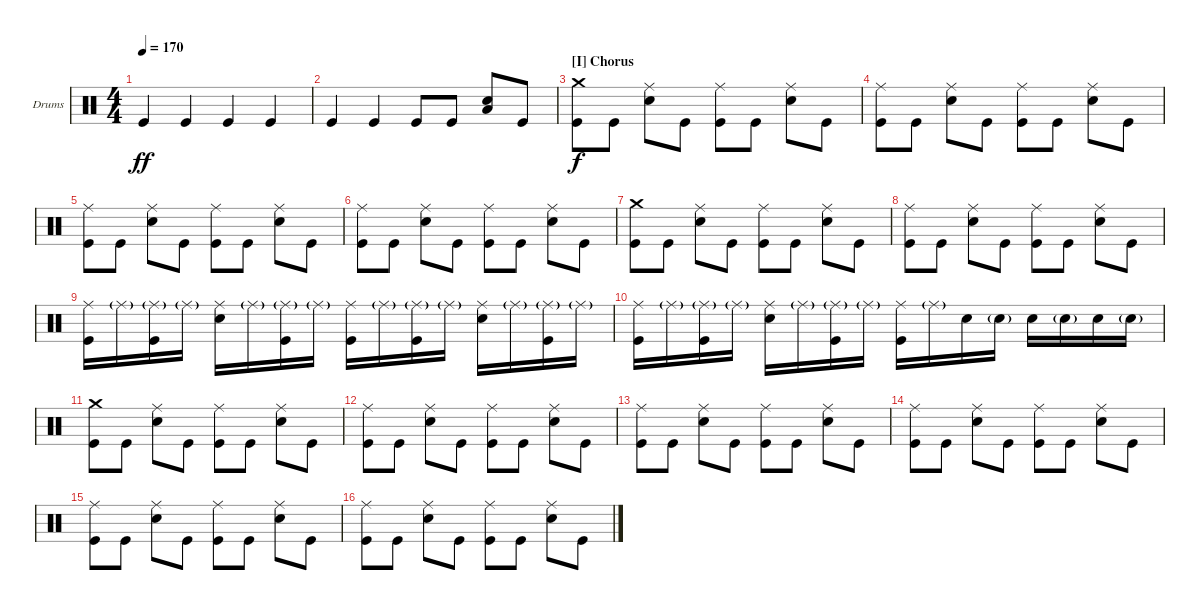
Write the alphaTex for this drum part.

\defaultSystemsLayout 4
\bracketExtendMode groupsimilarinstruments
\firstSystemTrackNameOrientation horizontal
\otherSystemsTrackNameOrientation horizontal
\track ("Benny Horowitz" "Drums") {instrument percussion}
\staff {score}
\articulation defaults
\ts (4 4)
\tempo 170
\clef neutral
\ks c "Kick (hit)".4{dy ff} "Kick (hit)".4 "Kick (hit)".4 "Kick (hit)".4
|
"Kick (hit)".4 "Kick (hit)".4 "Kick (hit)".8 "Kick (hit)".8 ("Snare (hit) 2" "Low Tom (hit)").8 "Kick (hit)".8 |
\section ("I" "Chorus")
("Crash medium (hit)" "Kick (hit)").8{dy f} "Kick (hit)".8 ("Snare (hit) 2" "Ride (middle)").8 "Kick (hit)".8 ("Kick (hit)" "Ride (middle)").8 "Kick (hit)".8 ("Snare (hit) 2" "Ride (middle)").8 "Kick (hit)".8 |
("Kick (hit)" "Ride (middle)").8 "Kick (hit)".8 ("Snare (hit) 2" "Ride (middle)").8 "Kick (hit)".8 ("Kick (hit)" "Ride (middle)").8 "Kick (hit)".8 ("Snare (hit) 2" "Ride (middle)").8 "Kick (hit)".8 |
("Kick (hit)" "Ride (middle)").8 "Kick (hit)".8 ("Snare (hit) 2" "Ride (middle)").8 "Kick (hit)".8 ("Kick (hit)" "Ride (middle)").8 "Kick (hit)".8 ("Snare (hit) 2" "Ride (middle)").8 "Kick (hit)".8 |
("Kick (hit)" "Ride (middle)").8 "Kick (hit)".8 ("Snare (hit) 2" "Ride (middle)").8 "Kick (hit)".8 ("Kick (hit)" "Ride (middle)").8 "Kick (hit)".8 ("Snare (hit) 2" "Ride (middle)").8 "Kick (hit)".8 |
("Crash medium (hit)" "Kick (hit)").8 "Kick (hit)".8 ("Snare (hit) 2" "Ride (middle)").8 "Kick (hit)".8 ("Kick (hit)" "Ride (middle)").8 "Kick (hit)".8 ("Snare (hit) 2" "Ride (middle)").8 "Kick (hit)".8 |
("Kick (hit)" "Ride (middle)").8 "Kick (hit)".8 ("Snare (hit) 2" "Ride (middle)").8 "Kick (hit)".8 ("Kick (hit)" "Ride (middle)").8 "Kick (hit)".8 ("Snare (hit) 2" "Ride (middle)").8 "Kick (hit)".8 |
("Kick (hit)" "Ride (middle)").16 "Ride (middle)"{g}.16 ("Kick (hit)" "Ride (middle)"{g}).16 "Ride (middle)"{g}.16 ("Snare (hit) 2" "Ride (middle)").16 "Ride (middle)"{g}.16 ("Kick (hit)" "Ride (middle)"{g}).16 "Ride (middle)"{g}.16 ("Kick (hit)" "Ride (middle)").16 "Ride (middle)"{g}.16 ("Kick (hit)" "Ride (middle)"{g}).16 "Ride (middle)"{g}.16 ("Snare (hit) 2" "Ride (middle)").16 "Ride (middle)"{g}.16 ("Kick (hit)" "Ride (middle)"{g}).16 "Ride (middle)"{g}.16 |
("Kick (hit)" "Ride (middle)").16 "Ride (middle)"{g}.16 ("Kick (hit)" "Ride (middle)"{g}).16 "Ride (middle)"{g}.16 ("Snare (hit) 2" "Ride (middle)").16 "Ride (middle)"{g}.16 ("Kick (hit)" "Ride (middle)"{g}).16 "Ride (middle)"{g}.16 ("Kick (hit)" "Ride (middle)").16 "Ride (middle)"{g}.16 "Snare (hit) 2".16 "Snare (hit) 2"{g}.16 "Snare (hit) 2".16 "Snare (hit) 2"{g}.16 "Snare (hit) 2".16 "Snare (hit) 2"{g}.16 |
("Crash medium (hit)" "Kick (hit)").8 "Kick (hit)".8 ("Snare (hit) 2" "Ride (middle)").8 "Kick (hit)".8 ("Kick (hit)" "Ride (middle)").8 "Kick (hit)".8 ("Snare (hit) 2" "Ride (middle)").8 "Kick (hit)".8 |
("Kick (hit)" "Ride (middle)").8 "Kick (hit)".8 ("Snare (hit) 2" "Ride (middle)").8 "Kick (hit)".8 ("Kick (hit)" "Ride (middle)").8 "Kick (hit)".8 ("Snare (hit) 2" "Ride (middle)").8 "Kick (hit)".8 |
("Kick (hit)" "Ride (middle)").8 "Kick (hit)".8 ("Snare (hit) 2" "Ride (middle)").8 "Kick (hit)".8 ("Kick (hit)" "Ride (middle)").8 "Kick (hit)".8 ("Snare (hit) 2" "Ride (middle)").8 "Kick (hit)".8 |
("Kick (hit)" "Ride (middle)").8 "Kick (hit)".8 ("Snare (hit) 2" "Ride (middle)").8 "Kick (hit)".8 ("Kick (hit)" "Ride (middle)").8 "Kick (hit)".8 ("Snare (hit) 2" "Ride (middle)").8 "Kick (hit)".8 |
("Kick (hit)" "Ride (middle)").8 "Kick (hit)".8 ("Snare (hit) 2" "Ride (middle)").8 "Kick (hit)".8 ("Kick (hit)" "Ride (middle)").8 "Kick (hit)".8 ("Snare (hit) 2" "Ride (middle)").8 "Kick (hit)".8 |
("Kick (hit)" "Ride (middle)").8 "Kick (hit)".8 ("Snare (hit) 2" "Ride (middle)").8 "Kick (hit)".8 ("Kick (hit)" "Ride (middle)").8 "Kick (hit)".8 ("Snare (hit) 2" "Ride (middle)").8 "Kick (hit)".8
